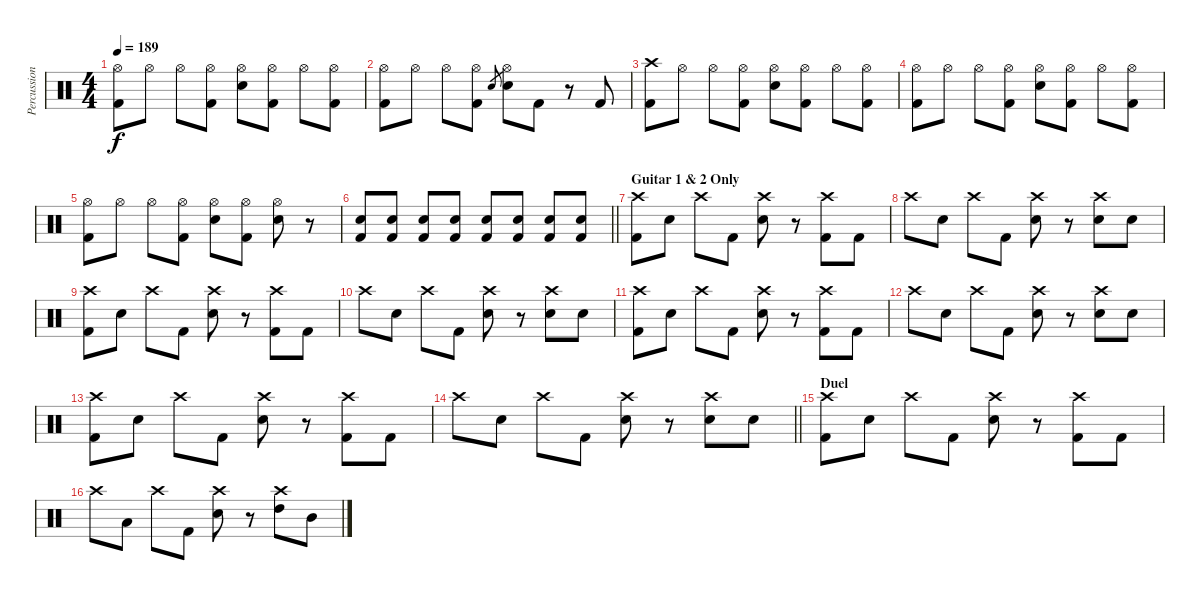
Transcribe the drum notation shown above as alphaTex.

\track ("Percussion" "Percussion") {instrument percussion}
\staff {score}
\articulation defaults
\ts (4 4)
\tempo 189
\clef neutral
\ks c
("Hi-Hat (open)" "Kick (hit) 2").8{dy f} "Hi-Hat (open)".8 "Hi-Hat (open)".8 ("Hi-Hat (open)" "Kick (hit) 2").8 ("Hi-Hat (open)" "Electric Snare (hit)").8 ("Hi-Hat (open)" "Kick (hit) 2").8 "Hi-Hat (open)".8 ("Hi-Hat (open)" "Kick (hit) 2").8 |
("Hi-Hat (open)" "Kick (hit) 2").8 "Hi-Hat (open)".8 "Hi-Hat (open)".8 ("Hi-Hat (open)" "Kick (hit) 2").8 "Electric Snare (hit)".8{gr} ("Hi-Hat (open)" "Electric Snare (hit)").8 "Kick (hit) 2".8 r.8 "Kick (hit) 2".8 |
("Crash high (hit)" "Kick (hit) 2").8 "Hi-Hat (open)".8 "Hi-Hat (open)".8 ("Hi-Hat (open)" "Kick (hit) 2").8 ("Hi-Hat (open)" "Electric Snare (hit)").8 ("Hi-Hat (open)" "Kick (hit) 2").8 "Hi-Hat (open)".8 ("Hi-Hat (open)" "Kick (hit) 2").8 |
("Hi-Hat (open)" "Kick (hit) 2").8 "Hi-Hat (open)".8 "Hi-Hat (open)".8 ("Hi-Hat (open)" "Kick (hit) 2").8 ("Hi-Hat (open)" "Electric Snare (hit)").8 ("Hi-Hat (open)" "Kick (hit) 2").8 "Hi-Hat (open)".8 ("Hi-Hat (open)" "Kick (hit) 2").8 |
("Hi-Hat (open)" "Kick (hit) 2").8 "Hi-Hat (open)".8 "Hi-Hat (open)".8 ("Hi-Hat (open)" "Kick (hit) 2").8 ("Hi-Hat (open)" "Electric Snare (hit)").8 ("Hi-Hat (open)" "Kick (hit) 2").8 ("Hi-Hat (open)" "Electric Snare (hit)").8 r.8 |
\barLineRight lightlight
("Electric Snare (hit)" "Kick (hit) 2").8 ("Electric Snare (hit)" "Kick (hit) 2").8 ("Electric Snare (hit)" "Kick (hit) 2").8 ("Electric Snare (hit)" "Kick (hit) 2").8 ("Electric Snare (hit)" "Kick (hit) 2").8 ("Electric Snare (hit)" "Kick (hit) 2").8 ("Electric Snare (hit)" "Kick (hit) 2").8 ("Electric Snare (hit)" "Kick (hit) 2").8 |
\section ("" "Guitar 1 & 2 Only")
("Crash high (hit)" "Kick (hit) 2").8 "Electric Snare (hit)".8 "Crash high (hit)".8 "Kick (hit) 2".8 ("Crash high (hit)" "Electric Snare (hit)").8 r.8 ("Crash high (hit)" "Kick (hit) 2").8 "Kick (hit) 2".8 |
"Crash high (hit)".8 "Electric Snare (hit)".8 "Crash high (hit)".8 "Kick (hit) 2".8 ("Crash high (hit)" "Electric Snare (hit)").8 r.8 ("Crash high (hit)" "Electric Snare (hit)").8 "Electric Snare (hit)".8 |
("Crash high (hit)" "Kick (hit) 2").8 "Electric Snare (hit)".8 "Crash high (hit)".8 "Kick (hit) 2".8 ("Crash high (hit)" "Electric Snare (hit)").8 r.8 ("Crash high (hit)" "Kick (hit) 2").8 "Kick (hit) 2".8 |
"Crash high (hit)".8 "Electric Snare (hit)".8 "Crash high (hit)".8 "Kick (hit) 2".8 ("Crash high (hit)" "Electric Snare (hit)").8 r.8 ("Crash high (hit)" "Electric Snare (hit)").8 "Electric Snare (hit)".8 |
("Crash high (hit)" "Kick (hit) 2").8 "Electric Snare (hit)".8 "Crash high (hit)".8 "Kick (hit) 2".8 ("Crash high (hit)" "Electric Snare (hit)").8 r.8 ("Crash high (hit)" "Kick (hit) 2").8 "Kick (hit) 2".8 |
"Crash high (hit)".8 "Electric Snare (hit)".8 "Crash high (hit)".8 "Kick (hit) 2".8 ("Crash high (hit)" "Electric Snare (hit)").8 r.8 ("Crash high (hit)" "Electric Snare (hit)").8 "Electric Snare (hit)".8 |
("Crash high (hit)" "Kick (hit) 2").8 "Electric Snare (hit)".8 "Crash high (hit)".8 "Kick (hit) 2".8 ("Crash high (hit)" "Electric Snare (hit)").8 r.8 ("Crash high (hit)" "Kick (hit) 2").8 "Kick (hit) 2".8 |
\barLineRight lightlight "Crash high (hit)".8 "Electric Snare (hit)".8 "Crash high (hit)".8 "Kick (hit) 2".8
("Crash high (hit)" "Electric Snare (hit)").8 r.8 ("Crash high (hit)" "Electric Snare (hit)").8 "Electric Snare (hit)".8 |
\section ("" "Duel")
("Crash high (hit)" "Kick (hit) 2").8 "Electric Snare (hit)".8 "Crash high (hit)".8 "Kick (hit) 2".8 ("Crash high (hit)" "Electric Snare (hit)").8 r.8 ("Crash high (hit)" "Kick (hit) 2").8 "Kick (hit) 2".8 |
"Crash high (hit)".8 "Low Tom (hit)".8 "Crash high (hit)".8 "Kick (hit) 2".8 ("Crash high (hit)" "Electric Snare (hit)").8 r.8 ("Crash high (hit)" "High Tom (hit)").8 "Mid Tom (hit)".8
